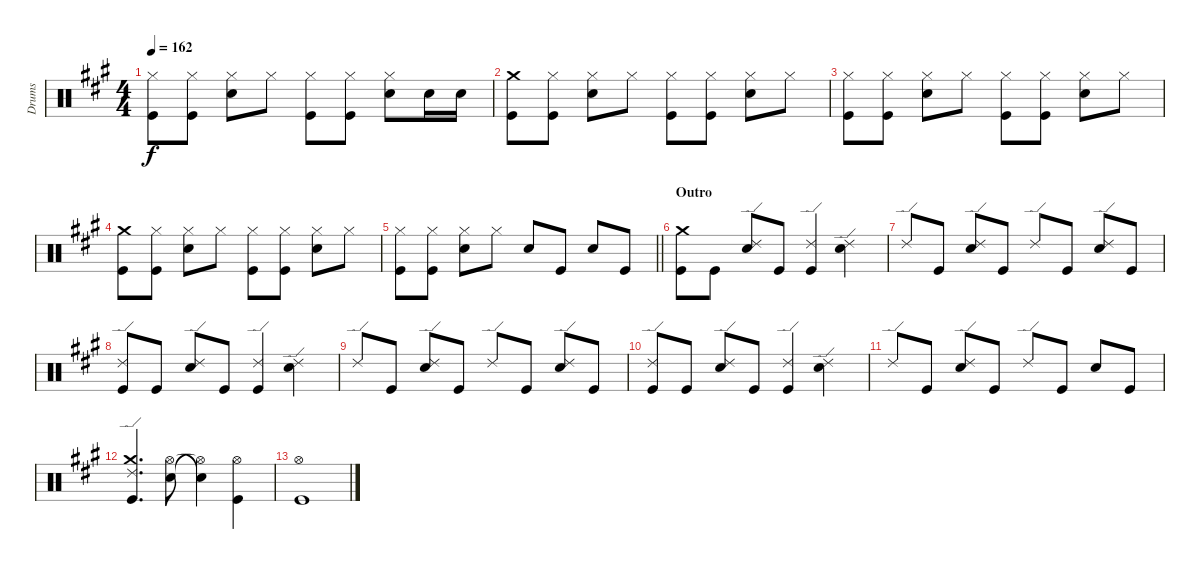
\track ("Drums" "Drums") {instrument percussion}
\staff {score}
\articulation defaults
\ts (4 4)
\tempo 162
\clef neutral
\ks a
("Kick (hit)" "Hi-Hat (closed)").8{dy f} ("Kick (hit)" "Hi-Hat (closed)").8 ("Snare (hit) 2" "Hi-Hat (closed)").8 "Hi-Hat (closed)".8 ("Kick (hit)" "Hi-Hat (closed)").8 ("Kick (hit)" "Hi-Hat (closed)").8 ("Snare (hit) 2" "Hi-Hat (closed)").8 "Snare (hit) 2".16 "Snare (hit) 2".16 |
("Kick (hit)" "Crash medium (hit)").8 ("Kick (hit)" "Hi-Hat (closed)").8 ("Snare (hit) 2" "Hi-Hat (closed)").8 "Hi-Hat (closed)".8 ("Kick (hit)" "Hi-Hat (closed)").8 ("Kick (hit)" "Hi-Hat (closed)").8 ("Snare (hit) 2" "Hi-Hat (closed)").8 "Hi-Hat (closed)".8 |
("Kick (hit)" "Hi-Hat (closed)").8 ("Kick (hit)" "Hi-Hat (closed)").8 ("Snare (hit) 2" "Hi-Hat (closed)").8 "Hi-Hat (closed)".8 ("Kick (hit)" "Hi-Hat (closed)").8 ("Kick (hit)" "Hi-Hat (closed)").8 ("Snare (hit) 2" "Hi-Hat (closed)").8 "Hi-Hat (closed)".8 |
("Kick (hit)" "Crash medium (hit)").8 ("Kick (hit)" "Hi-Hat (closed)").8 ("Snare (hit) 2" "Hi-Hat (closed)").8 "Hi-Hat (closed)".8 ("Kick (hit)" "Hi-Hat (closed)").8 ("Kick (hit)" "Hi-Hat (closed)").8 ("Snare (hit) 2" "Hi-Hat (closed)").8 "Hi-Hat (closed)".8 |
\barLineRight lightlight
("Kick (hit)" "Hi-Hat (closed)").8 ("Kick (hit)" "Hi-Hat (closed)").8 ("Snare (hit) 2" "Hi-Hat (closed)").8 "Hi-Hat (closed)".8 "Snare (hit) 2".8 "Kick (hit)".8 "Snare (hit) 2".8 "Kick (hit)".8 |
\section ("" "Outro")
("Kick (hit)" "Crash medium (hit)").8 "Kick (hit)".8 ("Snare (hit) 2" "Ride (edge) 2").8 "Kick (hit)".8 ("Kick (hit)" "Ride (edge) 2").4 ("Snare (hit) 2" "Ride (edge) 2").4 |
"Ride (edge) 2".8 "Kick (hit)".8 ("Snare (hit) 2" "Ride (edge) 2").8 "Kick (hit)".8 "Ride (edge) 2".8 "Kick (hit)".8 ("Snare (hit) 2" "Ride (edge) 2").8 "Kick (hit)".8 |
("Kick (hit)" "Ride (edge) 2").8 "Kick (hit)".8 ("Snare (hit) 2" "Ride (edge) 2").8 "Kick (hit)".8 ("Kick (hit)" "Ride (edge) 2").4 ("Snare (hit) 2" "Ride (edge) 2").4 |
"Ride (edge) 2".8 "Kick (hit)".8 ("Snare (hit) 2" "Ride (edge) 2").8 "Kick (hit)".8 "Ride (edge) 2".8 "Kick (hit)".8 ("Snare (hit) 2" "Ride (edge) 2").8 "Kick (hit)".8 |
("Kick (hit)" "Ride (edge) 2").8 "Kick (hit)".8 ("Snare (hit) 2" "Ride (edge) 2").8 "Kick (hit)".8 ("Kick (hit)" "Ride (edge) 2").4 ("Snare (hit) 2" "Ride (edge) 2").4 |
"Ride (edge) 2".8 "Kick (hit)".8 ("Snare (hit) 2" "Ride (edge) 2").8 "Kick (hit)".8 "Ride (edge) 2".8 "Kick (hit)".8 "Snare (hit) 2".8 "Kick (hit)".8 |
("Kick (hit)" "Crash medium (hit)" "Ride (edge) 2").4{d} ("Hi-Hat (open)" "Snare (hit) 2").8 ("Snare (hit) 2"{t} "Hi-Hat (open)"{t}).4 ("Kick (hit)" "Hi-Hat (open)").4 |
("Hi-Hat (open)" "Kick (hit)").1
